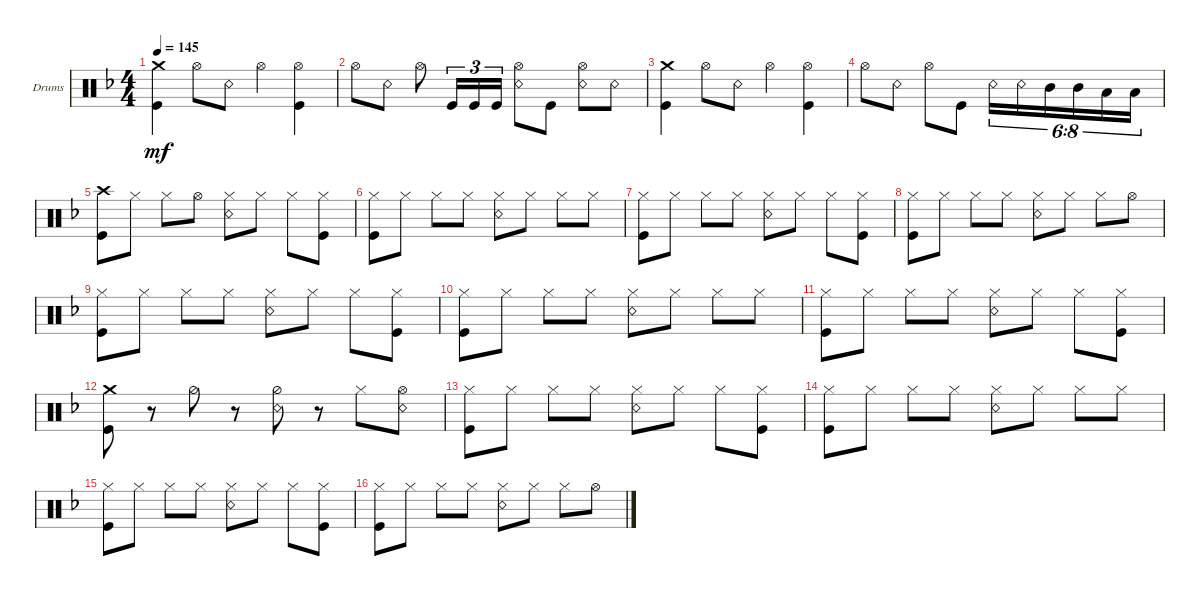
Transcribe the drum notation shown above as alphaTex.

\defaultSystemsLayout 4
\bracketExtendMode groupsimilarinstruments
\firstSystemTrackNameOrientation horizontal
\otherSystemsTrackNameOrientation horizontal
\track ("Drumkit" "Drums") {instrument percussion}
\staff {score}
\articulation defaults
\ts (4 4)
\tempo 145
\clef neutral
\ks dminor
("Kick (hit)" "Crash medium (hit)").4{dy mf} "Hi-Hat (open)".8 "Snare (rim shot)".8 "Hi-Hat (open)".4 ("Kick (hit)" "Hi-Hat (open)").4 |
"Hi-Hat (open)".8 "Snare (rim shot)".8 "Hi-Hat (open)".8 "Kick (hit)".16{tu (3 2)} "Kick (hit)".16{tu (3 2)} "Kick (hit)".16{tu (3 2)} ("Snare (rim shot)" "Hi-Hat (open)").8 "Kick (hit)".8 ("Hi-Hat (open)" "Snare (rim shot)").8 "Snare (rim shot)".8 |
("Kick (hit)" "Crash medium (hit)").4 "Hi-Hat (open)".8 "Snare (rim shot)".8 "Hi-Hat (open)".4 ("Kick (hit)" "Hi-Hat (open)").4 |
"Hi-Hat (open)".8 "Snare (rim shot)".8 "Hi-Hat (open)".8 "Kick (hit)".8 "Snare (rim shot)".16{tu (6 8)} "Snare (rim shot)".16{tu (6 8)} "Mid Tom (hit)".16{tu (6 8)} "Mid Tom (hit)".16{tu (6 8)} "Low Tom (hit)".16{tu (6 8)} "Low Tom (hit)".16{tu (6 8)} |
("Kick (hit)" "Crash high (hit)").8 "Hi-Hat (closed)".8 "Hi-Hat (closed)".8 "Hi-Hat (open)".8 ("Hi-Hat (closed)" "Snare (rim shot)").8 "Hi-Hat (closed)".8 "Hi-Hat (closed)".8 ("Hi-Hat (closed)" "Kick (hit)").8 |
("Kick (hit)" "Hi-Hat (closed)").8 "Hi-Hat (closed)".8 "Hi-Hat (closed)".8 "Hi-Hat (closed)".8 ("Hi-Hat (closed)" "Snare (rim shot)").8 "Hi-Hat (closed)".8 "Hi-Hat (closed)".8 "Hi-Hat (closed)".8 |
("Kick (hit)" "Hi-Hat (closed)").8 "Hi-Hat (closed)".8 "Hi-Hat (closed)".8 "Hi-Hat (closed)".8 ("Hi-Hat (closed)" "Snare (rim shot)").8 "Hi-Hat (closed)".8 "Hi-Hat (closed)".8 ("Hi-Hat (closed)" "Kick (hit)").8 |
("Kick (hit)" "Hi-Hat (closed)").8 "Hi-Hat (closed)".8 "Hi-Hat (closed)".8 "Hi-Hat (closed)".8 ("Hi-Hat (closed)" "Snare (rim shot)").8 "Hi-Hat (closed)".8 "Hi-Hat (closed)".8 "Hi-Hat (open)".8 |
("Kick (hit)" "Hi-Hat (closed)").8 "Hi-Hat (closed)".8 "Hi-Hat (closed)".8 "Hi-Hat (closed)".8 ("Hi-Hat (closed)" "Snare (rim shot)").8 "Hi-Hat (closed)".8 "Hi-Hat (closed)".8 ("Hi-Hat (closed)" "Kick (hit)").8 |
("Kick (hit)" "Hi-Hat (closed)").8 "Hi-Hat (closed)".8 "Hi-Hat (closed)".8 "Hi-Hat (closed)".8 ("Hi-Hat (closed)" "Snare (rim shot)").8 "Hi-Hat (closed)".8 "Hi-Hat (closed)".8 "Hi-Hat (closed)".8 |
("Kick (hit)" "Hi-Hat (closed)").8 "Hi-Hat (closed)".8 "Hi-Hat (closed)".8 "Hi-Hat (closed)".8 ("Hi-Hat (closed)" "Snare (rim shot)").8 "Hi-Hat (closed)".8 "Hi-Hat (closed)".8 ("Hi-Hat (closed)" "Kick (hit)").8 |
("Kick (hit)" "Crash medium (hit)").8 r.8 "Hi-Hat (half)".8 r.8 ("Snare (rim shot)" "Hi-Hat (half)").8 r.8 "Hi-Hat (closed)".8 ("Snare (rim shot)" "Hi-Hat (open)").8 |
("Kick (hit)" "Hi-Hat (closed)").8 "Hi-Hat (closed)".8 "Hi-Hat (closed)".8 "Hi-Hat (closed)".8 ("Hi-Hat (closed)" "Snare (rim shot)").8 "Hi-Hat (closed)".8 "Hi-Hat (closed)".8 ("Hi-Hat (closed)" "Kick (hit)").8 |
("Kick (hit)" "Hi-Hat (closed)").8 "Hi-Hat (closed)".8 "Hi-Hat (closed)".8 "Hi-Hat (closed)".8 ("Hi-Hat (closed)" "Snare (rim shot)").8 "Hi-Hat (closed)".8 "Hi-Hat (closed)".8 "Hi-Hat (closed)".8 |
("Kick (hit)" "Hi-Hat (closed)").8 "Hi-Hat (closed)".8 "Hi-Hat (closed)".8 "Hi-Hat (closed)".8 ("Hi-Hat (closed)" "Snare (rim shot)").8 "Hi-Hat (closed)".8 "Hi-Hat (closed)".8 ("Hi-Hat (closed)" "Kick (hit)").8 |
("Kick (hit)" "Hi-Hat (closed)").8 "Hi-Hat (closed)".8 "Hi-Hat (closed)".8 "Hi-Hat (closed)".8 ("Hi-Hat (closed)" "Snare (rim shot)").8 "Hi-Hat (closed)".8 "Hi-Hat (closed)".8 "Hi-Hat (open)".8
